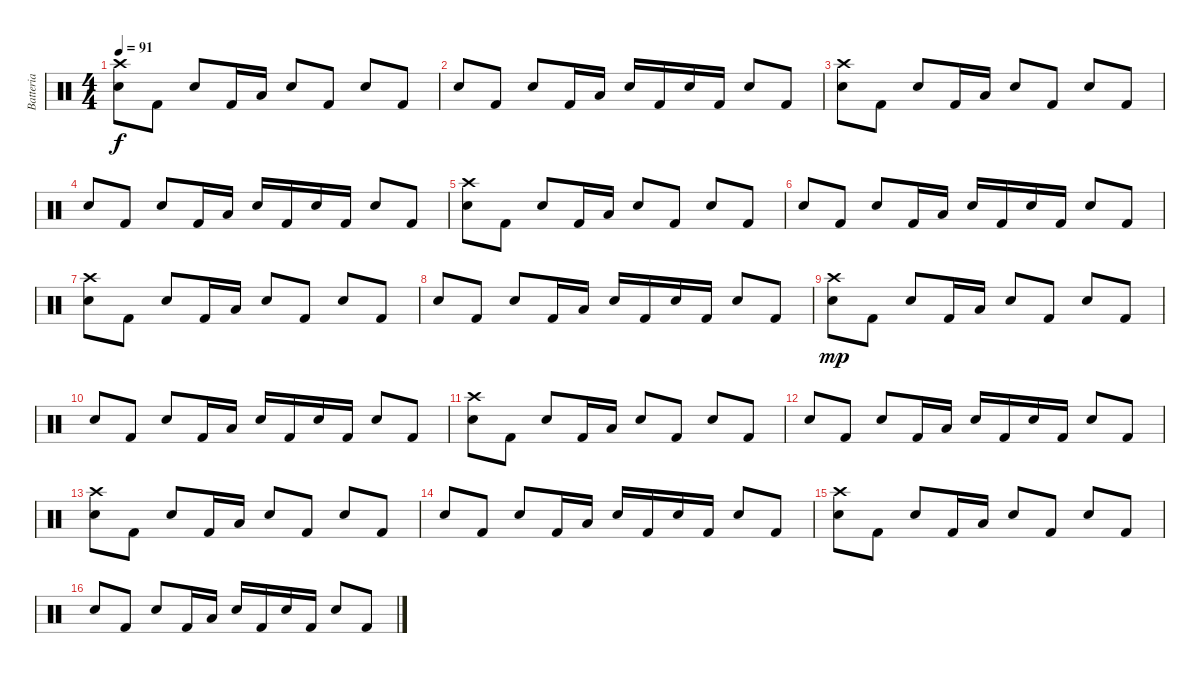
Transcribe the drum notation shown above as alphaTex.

\track ("Batteria" "Batteria") {instrument percussion}
\staff {score}
\articulation defaults
\ts (4 4)
\tempo 91
\clef neutral
\ks c
("Crash high (hit)" "Electric Snare (hit)").8{dy f volume 16} "Kick (hit) 2".8 "Electric Snare (hit)".8 "Kick (hit) 2".16 "Low Floor Tom (hit)".16 "Electric Snare (hit)".8 "Kick (hit) 2".8 "Electric Snare (hit)".8 "Kick (hit) 2".8 |
"Electric Snare (hit)".8 "Kick (hit) 2".8 "Electric Snare (hit)".8 "Kick (hit) 2".16 "Low Floor Tom (hit)".16 "Electric Snare (hit)".16 "Kick (hit) 2".16 "Electric Snare (hit)".16 "Kick (hit) 2".16 "Electric Snare (hit)".8 "Kick (hit) 2".8 |
("Crash high (hit)" "Electric Snare (hit)").8 "Kick (hit) 2".8 "Electric Snare (hit)".8 "Kick (hit) 2".16 "Low Floor Tom (hit)".16 "Electric Snare (hit)".8 "Kick (hit) 2".8 "Electric Snare (hit)".8 "Kick (hit) 2".8 |
"Electric Snare (hit)".8 "Kick (hit) 2".8 "Electric Snare (hit)".8 "Kick (hit) 2".16 "Low Floor Tom (hit)".16 "Electric Snare (hit)".16 "Kick (hit) 2".16 "Electric Snare (hit)".16 "Kick (hit) 2".16 "Electric Snare (hit)".8 "Kick (hit) 2".8 |
("Crash high (hit)" "Electric Snare (hit)").8 "Kick (hit) 2".8 "Electric Snare (hit)".8 "Kick (hit) 2".16 "Low Floor Tom (hit)".16 "Electric Snare (hit)".8 "Kick (hit) 2".8 "Electric Snare (hit)".8 "Kick (hit) 2".8 |
"Electric Snare (hit)".8 "Kick (hit) 2".8 "Electric Snare (hit)".8 "Kick (hit) 2".16 "Low Floor Tom (hit)".16 "Electric Snare (hit)".16 "Kick (hit) 2".16 "Electric Snare (hit)".16 "Kick (hit) 2".16 "Electric Snare (hit)".8 "Kick (hit) 2".8 |
("Crash high (hit)" "Electric Snare (hit)").8 "Kick (hit) 2".8 "Electric Snare (hit)".8 "Kick (hit) 2".16 "Low Floor Tom (hit)".16 "Electric Snare (hit)".8 "Kick (hit) 2".8 "Electric Snare (hit)".8 "Kick (hit) 2".8 |
"Electric Snare (hit)".8 "Kick (hit) 2".8 "Electric Snare (hit)".8 "Kick (hit) 2".16 "Low Floor Tom (hit)".16 "Electric Snare (hit)".16 "Kick (hit) 2".16 "Electric Snare (hit)".16 "Kick (hit) 2".16 "Electric Snare (hit)".8 "Kick (hit) 2".8 |
("Crash high (hit)" "Electric Snare (hit)").8{dy mp} "Kick (hit) 2".8 "Electric Snare (hit)".8 "Kick (hit) 2".16 "Low Floor Tom (hit)".16 "Electric Snare (hit)".8 "Kick (hit) 2".8 "Electric Snare (hit)".8 "Kick (hit) 2".8 |
"Electric Snare (hit)".8 "Kick (hit) 2".8 "Electric Snare (hit)".8 "Kick (hit) 2".16 "Low Floor Tom (hit)".16 "Electric Snare (hit)".16 "Kick (hit) 2".16 "Electric Snare (hit)".16 "Kick (hit) 2".16 "Electric Snare (hit)".8 "Kick (hit) 2".8 |
("Crash high (hit)" "Electric Snare (hit)").8 "Kick (hit) 2".8 "Electric Snare (hit)".8 "Kick (hit) 2".16 "Low Floor Tom (hit)".16 "Electric Snare (hit)".8 "Kick (hit) 2".8 "Electric Snare (hit)".8 "Kick (hit) 2".8 |
"Electric Snare (hit)".8 "Kick (hit) 2".8 "Electric Snare (hit)".8 "Kick (hit) 2".16 "Low Floor Tom (hit)".16 "Electric Snare (hit)".16 "Kick (hit) 2".16 "Electric Snare (hit)".16 "Kick (hit) 2".16 "Electric Snare (hit)".8 "Kick (hit) 2".8 |
("Crash high (hit)" "Electric Snare (hit)").8 "Kick (hit) 2".8 "Electric Snare (hit)".8 "Kick (hit) 2".16 "Low Floor Tom (hit)".16 "Electric Snare (hit)".8 "Kick (hit) 2".8 "Electric Snare (hit)".8 "Kick (hit) 2".8 |
"Electric Snare (hit)".8 "Kick (hit) 2".8 "Electric Snare (hit)".8 "Kick (hit) 2".16 "Low Floor Tom (hit)".16 "Electric Snare (hit)".16 "Kick (hit) 2".16 "Electric Snare (hit)".16 "Kick (hit) 2".16 "Electric Snare (hit)".8 "Kick (hit) 2".8 |
("Crash high (hit)" "Electric Snare (hit)").8 "Kick (hit) 2".8 "Electric Snare (hit)".8 "Kick (hit) 2".16 "Low Floor Tom (hit)".16 "Electric Snare (hit)".8 "Kick (hit) 2".8 "Electric Snare (hit)".8 "Kick (hit) 2".8 |
"Electric Snare (hit)".8 "Kick (hit) 2".8 "Electric Snare (hit)".8 "Kick (hit) 2".16 "Low Floor Tom (hit)".16 "Electric Snare (hit)".16 "Kick (hit) 2".16 "Electric Snare (hit)".16 "Kick (hit) 2".16 "Electric Snare (hit)".8 "Kick (hit) 2".8
